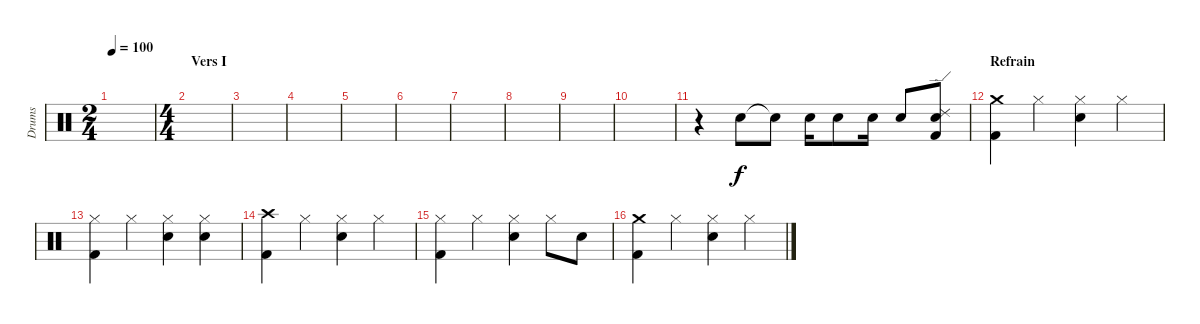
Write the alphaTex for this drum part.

\track ("Drums" "Drums") {instrument percussion}
\staff {score}
\articulation defaults
\ts (2 4)
\tempo 100
\clef neutral
\ks c
|
\ts (4 4)
\section ("" "Vers I")
|
|
|
|
|
|
|
|
|
r.4 "Snare (hit) 2".8 "Electric Snare (hit)"{t}.8 "Snare (hit) 2".16 "Snare (hit) 2".8 "Snare (hit) 2".16 "Snare (hit) 2".8 ("Ride (edge) 2" "Snare (hit) 2" "Kick (hit) 2").8 |
\section ("" "Refrain")
("Crash medium (hit)" "Kick (hit) 2").4 "Hi-Hat (closed)".4 ("Hi-Hat (closed)" "Snare (hit) 2").4 "Hi-Hat (closed)".4 |
("Hi-Hat (closed)" "Kick (hit) 2").4 "Hi-Hat (closed)".4 ("Hi-Hat (closed)" "Snare (hit) 2").4 ("Hi-Hat (closed)" "Snare (hit) 2").4 |
("Crash high (hit)" "Kick (hit) 2").4 "Hi-Hat (closed)".4 ("Hi-Hat (closed)" "Snare (hit) 2").4 "Hi-Hat (closed)".4 |
("Hi-Hat (closed)" "Kick (hit) 2").4 "Hi-Hat (closed)".4 ("Hi-Hat (closed)" "Snare (hit) 2").4 "Hi-Hat (closed)".8 "Snare (hit) 2".8 |
("Crash medium (hit)" "Kick (hit) 2").4 "Hi-Hat (closed)".4 ("Hi-Hat (closed)" "Snare (hit) 2").4 "Hi-Hat (closed)".4
